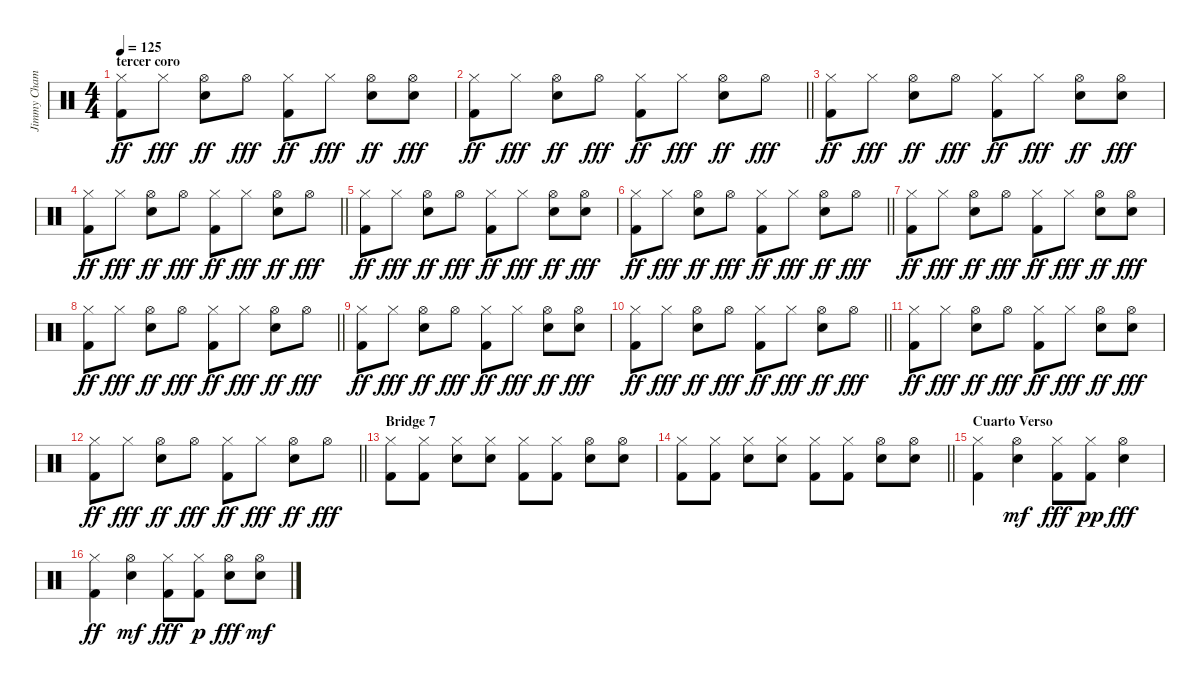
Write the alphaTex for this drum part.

\track ("Jimmy Chamberline" "Jimmy Cham") {instrument percussion}
\staff {score}
\articulation defaults
\ts (4 4)
\section ("" "tercer coro")
\tempo 125
\clef neutral
\ks c
("Hi-Hat (closed)" "Kick (hit) 2").8{dy ff} "Hi-Hat (closed)".8{dy fff} ("Hi-Hat (open)" "Snare (hit) 2").8{dy ff} "Hi-Hat (open)".8{dy fff} ("Hi-Hat (closed)" "Kick (hit) 2").8{dy ff} "Hi-Hat (closed)".8{dy fff} ("Hi-Hat (open)" "Snare (hit) 2").8{dy ff} ("Hi-Hat (open)" "Snare (hit) 2").8{dy fff} |
\barLineRight lightlight
("Hi-Hat (closed)" "Kick (hit) 2").8{dy ff} "Hi-Hat (closed)".8{dy fff} ("Hi-Hat (open)" "Snare (hit) 2").8{dy ff} "Hi-Hat (open)".8{dy fff} ("Hi-Hat (closed)" "Kick (hit) 2").8{dy ff} "Hi-Hat (closed)".8{dy fff} ("Hi-Hat (open)" "Snare (hit) 2").8{dy ff} "Hi-Hat (open)".8{dy fff} |
("Hi-Hat (closed)" "Kick (hit) 2").8{dy ff} "Hi-Hat (closed)".8{dy fff} ("Hi-Hat (open)" "Snare (hit) 2").8{dy ff} "Hi-Hat (open)".8{dy fff} ("Hi-Hat (closed)" "Kick (hit) 2").8{dy ff} "Hi-Hat (closed)".8{dy fff} ("Hi-Hat (open)" "Snare (hit) 2").8{dy ff} ("Hi-Hat (open)" "Snare (hit) 2").8{dy fff} |
\barLineRight lightlight
("Hi-Hat (closed)" "Kick (hit) 2").8{dy ff} "Hi-Hat (closed)".8{dy fff} ("Hi-Hat (open)" "Snare (hit) 2").8{dy ff} "Hi-Hat (open)".8{dy fff} ("Hi-Hat (closed)" "Kick (hit) 2").8{dy ff} "Hi-Hat (closed)".8{dy fff} ("Hi-Hat (open)" "Snare (hit) 2").8{dy ff} "Hi-Hat (open)".8{dy fff} |
("Hi-Hat (closed)" "Kick (hit) 2").8{dy ff} "Hi-Hat (closed)".8{dy fff} ("Hi-Hat (open)" "Snare (hit) 2").8{dy ff} "Hi-Hat (open)".8{dy fff} ("Hi-Hat (closed)" "Kick (hit) 2").8{dy ff} "Hi-Hat (closed)".8{dy fff} ("Hi-Hat (open)" "Snare (hit) 2").8{dy ff} ("Hi-Hat (open)" "Snare (hit) 2").8{dy fff} |
\barLineRight lightlight
("Hi-Hat (closed)" "Kick (hit) 2").8{dy ff} "Hi-Hat (closed)".8{dy fff} ("Hi-Hat (open)" "Snare (hit) 2").8{dy ff} "Hi-Hat (open)".8{dy fff} ("Hi-Hat (closed)" "Kick (hit) 2").8{dy ff} "Hi-Hat (closed)".8{dy fff} ("Hi-Hat (open)" "Snare (hit) 2").8{dy ff} "Hi-Hat (open)".8{dy fff} |
("Hi-Hat (closed)" "Kick (hit) 2").8{dy ff} "Hi-Hat (closed)".8{dy fff} ("Hi-Hat (open)" "Snare (hit) 2").8{dy ff} "Hi-Hat (open)".8{dy fff} ("Hi-Hat (closed)" "Kick (hit) 2").8{dy ff} "Hi-Hat (closed)".8{dy fff} ("Hi-Hat (open)" "Snare (hit) 2").8{dy ff} ("Hi-Hat (open)" "Snare (hit) 2").8{dy fff} |
\barLineRight lightlight
("Hi-Hat (closed)" "Kick (hit) 2").8{dy ff} "Hi-Hat (closed)".8{dy fff} ("Hi-Hat (open)" "Snare (hit) 2").8{dy ff} "Hi-Hat (open)".8{dy fff} ("Hi-Hat (closed)" "Kick (hit) 2").8{dy ff} "Hi-Hat (closed)".8{dy fff} ("Hi-Hat (open)" "Snare (hit) 2").8{dy ff} "Hi-Hat (open)".8{dy fff} |
("Hi-Hat (closed)" "Kick (hit) 2").8{dy ff} "Hi-Hat (closed)".8{dy fff} ("Hi-Hat (open)" "Snare (hit) 2").8{dy ff} "Hi-Hat (open)".8{dy fff} ("Hi-Hat (closed)" "Kick (hit) 2").8{dy ff} "Hi-Hat (closed)".8{dy fff} ("Hi-Hat (open)" "Snare (hit) 2").8{dy ff} ("Hi-Hat (open)" "Snare (hit) 2").8{dy fff} |
\barLineRight lightlight
("Hi-Hat (closed)" "Kick (hit) 2").8{dy ff} "Hi-Hat (closed)".8{dy fff} ("Hi-Hat (open)" "Snare (hit) 2").8{dy ff} "Hi-Hat (open)".8{dy fff} ("Hi-Hat (closed)" "Kick (hit) 2").8{dy ff} "Hi-Hat (closed)".8{dy fff} ("Hi-Hat (open)" "Snare (hit) 2").8{dy ff} "Hi-Hat (open)".8{dy fff} |
("Hi-Hat (closed)" "Kick (hit) 2").8{dy ff} "Hi-Hat (closed)".8{dy fff} ("Hi-Hat (open)" "Snare (hit) 2").8{dy ff} "Hi-Hat (open)".8{dy fff} ("Hi-Hat (closed)" "Kick (hit) 2").8{dy ff} "Hi-Hat (closed)".8{dy fff} ("Hi-Hat (open)" "Snare (hit) 2").8{dy ff} ("Hi-Hat (open)" "Snare (hit) 2").8{dy fff} |
\barLineRight lightlight
("Hi-Hat (closed)" "Kick (hit) 2").8{dy ff} "Hi-Hat (closed)".8{dy fff} ("Hi-Hat (open)" "Snare (hit) 2").8{dy ff} "Hi-Hat (open)".8{dy fff} ("Hi-Hat (closed)" "Kick (hit) 2").8{dy ff} "Hi-Hat (closed)".8{dy fff} ("Hi-Hat (open)" "Snare (hit) 2").8{dy ff} "Hi-Hat (open)".8{dy fff} |
\section ("" "Bridge 7")
("Hi-Hat (closed)" "Kick (hit) 2").8 ("Hi-Hat (closed)" "Kick (hit) 2").8 ("Hi-Hat (closed)" "Snare (hit) 2").8 ("Hi-Hat (closed)" "Snare (hit) 2").8 ("Hi-Hat (closed)" "Kick (hit) 2").8 ("Hi-Hat (closed)" "Kick (hit) 2").8 ("Hi-Hat (open)" "Snare (hit) 2").8 ("Hi-Hat (open)" "Snare (hit) 2").8 |
\barLineRight lightlight
("Hi-Hat (closed)" "Kick (hit) 2").8 ("Hi-Hat (closed)" "Kick (hit) 2").8 ("Hi-Hat (closed)" "Snare (hit) 2").8 ("Hi-Hat (closed)" "Snare (hit) 2").8 ("Hi-Hat (closed)" "Kick (hit) 2").8 ("Hi-Hat (closed)" "Kick (hit) 2").8 ("Hi-Hat (open)" "Snare (hit) 2").8 ("Hi-Hat (open)" "Snare (hit) 2").8 |
\section ("" "Cuarto Verso")
("Hi-Hat (closed)" "Kick (hit) 2").4 ("Hi-Hat (open)" "Snare (hit) 2").4{dy mf} ("Hi-Hat (closed)" "Kick (hit) 2").8{dy fff} ("Hi-Hat (closed)" "Kick (hit) 2").8{dy pp} ("Hi-Hat (open)" "Snare (hit) 2").4{dy fff} |
("Hi-Hat (closed)" "Kick (hit) 2").4{dy ff} ("Hi-Hat (open)" "Snare (hit) 2").4{dy mf} ("Hi-Hat (closed)" "Kick (hit) 2").8{dy fff} ("Hi-Hat (closed)" "Kick (hit) 2").8{dy p} ("Hi-Hat (open)" "Snare (hit) 2").8{dy fff} ("Hi-Hat (open)" "Snare (hit) 2").8{dy mf}
